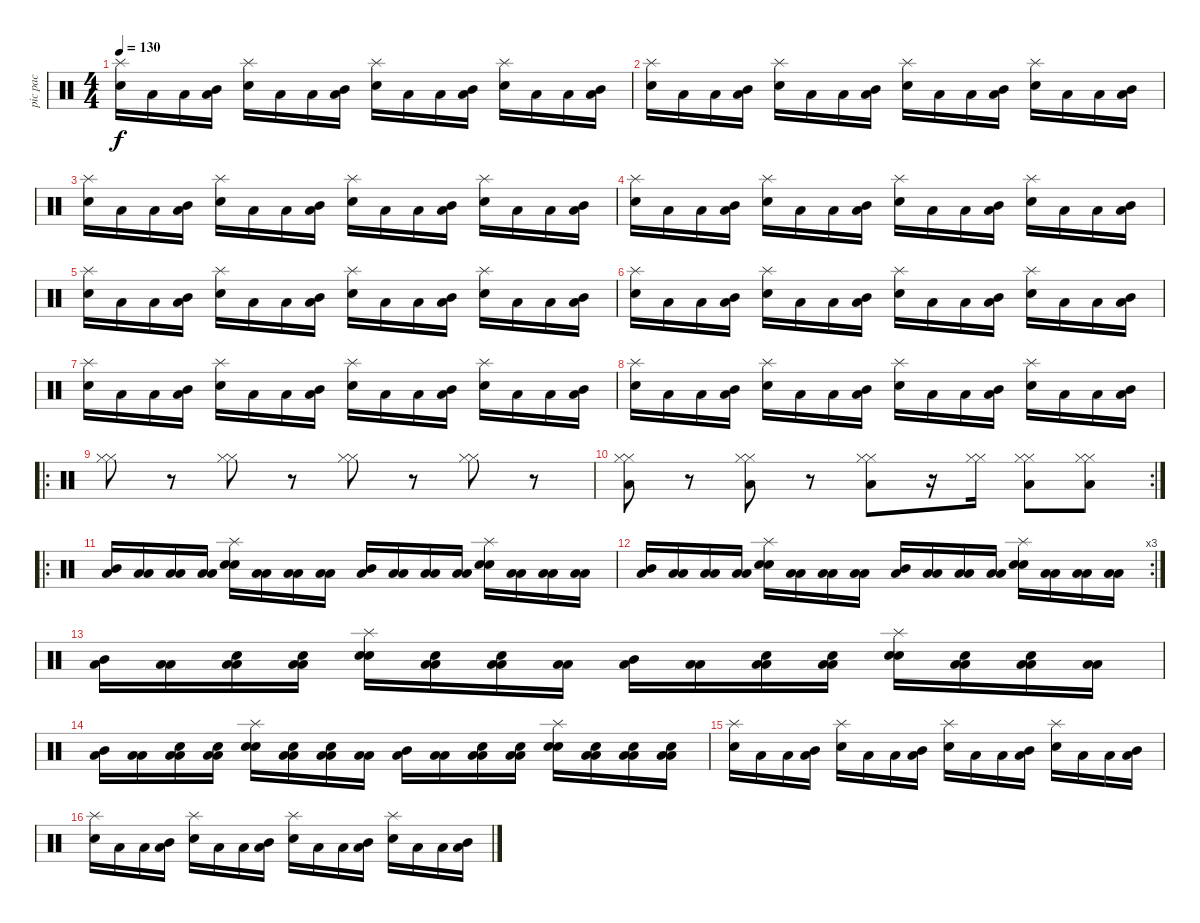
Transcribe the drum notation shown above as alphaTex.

\track ("pic pac" "pic pac") {instrument percussion}
\staff {score}
\articulation defaults
\ts (4 4)
\tempo 130
\clef neutral
\ks c
("Snare (hit) 2" "Splash (hit)").16{dy f} "Low Floor Tom (hit)".16 "Low Floor Tom (hit)".16 ("Low Floor Tom (hit)" "Mid Tom (hit)").16 ("Snare (hit) 2" "Splash (hit)").16 "Low Floor Tom (hit)".16 "Low Floor Tom (hit)".16 ("Low Floor Tom (hit)" "Mid Tom (hit)").16 ("Snare (hit) 2" "Splash (hit)").16 "Low Floor Tom (hit)".16 "Low Floor Tom (hit)".16 ("Low Floor Tom (hit)" "Mid Tom (hit)").16 ("Snare (hit) 2" "Splash (hit)").16 "Low Floor Tom (hit)".16 "Low Floor Tom (hit)".16 ("Low Floor Tom (hit)" "Mid Tom (hit)").16 |
("Snare (hit) 2" "Splash (hit)").16 "Low Floor Tom (hit)".16 "Low Floor Tom (hit)".16 ("Low Floor Tom (hit)" "Mid Tom (hit)").16 ("Snare (hit) 2" "Splash (hit)").16 "Low Floor Tom (hit)".16 "Low Floor Tom (hit)".16 ("Low Floor Tom (hit)" "Mid Tom (hit)").16 ("Snare (hit) 2" "Splash (hit)").16 "Low Floor Tom (hit)".16 "Low Floor Tom (hit)".16 ("Low Floor Tom (hit)" "Mid Tom (hit)").16 ("Snare (hit) 2" "Splash (hit)").16 "Low Floor Tom (hit)".16 "Low Floor Tom (hit)".16 ("Low Floor Tom (hit)" "Mid Tom (hit)").16 |
("Snare (hit) 2" "Splash (hit)").16 "Low Floor Tom (hit)".16 "Low Floor Tom (hit)".16 ("Low Floor Tom (hit)" "Mid Tom (hit)").16 ("Snare (hit) 2" "Splash (hit)").16 "Low Floor Tom (hit)".16 "Low Floor Tom (hit)".16 ("Low Floor Tom (hit)" "Mid Tom (hit)").16 ("Snare (hit) 2" "Splash (hit)").16 "Low Floor Tom (hit)".16 "Low Floor Tom (hit)".16 ("Low Floor Tom (hit)" "Mid Tom (hit)").16 ("Snare (hit) 2" "Splash (hit)").16 "Low Floor Tom (hit)".16 "Low Floor Tom (hit)".16 ("Low Floor Tom (hit)" "Mid Tom (hit)").16 |
("Snare (hit) 2" "Splash (hit)").16 "Low Floor Tom (hit)".16 "Low Floor Tom (hit)".16 ("Low Floor Tom (hit)" "Mid Tom (hit)").16 ("Snare (hit) 2" "Splash (hit)").16 "Low Floor Tom (hit)".16 "Low Floor Tom (hit)".16 ("Low Floor Tom (hit)" "Mid Tom (hit)").16 ("Snare (hit) 2" "Splash (hit)").16 "Low Floor Tom (hit)".16 "Low Floor Tom (hit)".16 ("Low Floor Tom (hit)" "Mid Tom (hit)").16 ("Snare (hit) 2" "Splash (hit)").16 "Low Floor Tom (hit)".16 "Low Floor Tom (hit)".16 ("Low Floor Tom (hit)" "Mid Tom (hit)").16 |
("Snare (hit) 2" "Splash (hit)").16 "Low Floor Tom (hit)".16 "Low Floor Tom (hit)".16 ("Low Floor Tom (hit)" "Mid Tom (hit)").16 ("Snare (hit) 2" "Splash (hit)").16 "Low Floor Tom (hit)".16 "Low Floor Tom (hit)".16 ("Low Floor Tom (hit)" "Mid Tom (hit)").16 ("Snare (hit) 2" "Splash (hit)").16 "Low Floor Tom (hit)".16 "Low Floor Tom (hit)".16 ("Low Floor Tom (hit)" "Mid Tom (hit)").16 ("Snare (hit) 2" "Splash (hit)").16 "Low Floor Tom (hit)".16 "Low Floor Tom (hit)".16 ("Low Floor Tom (hit)" "Mid Tom (hit)").16 |
("Snare (hit) 2" "Splash (hit)").16 "Low Floor Tom (hit)".16 "Low Floor Tom (hit)".16 ("Low Floor Tom (hit)" "Mid Tom (hit)").16 ("Snare (hit) 2" "Splash (hit)").16 "Low Floor Tom (hit)".16 "Low Floor Tom (hit)".16 ("Low Floor Tom (hit)" "Mid Tom (hit)").16 ("Snare (hit) 2" "Splash (hit)").16 "Low Floor Tom (hit)".16 "Low Floor Tom (hit)".16 ("Low Floor Tom (hit)" "Mid Tom (hit)").16 ("Snare (hit) 2" "Splash (hit)").16 "Low Floor Tom (hit)".16 "Low Floor Tom (hit)".16 ("Low Floor Tom (hit)" "Mid Tom (hit)").16 |
("Snare (hit) 2" "Splash (hit)").16 "Low Floor Tom (hit)".16 "Low Floor Tom (hit)".16 ("Low Floor Tom (hit)" "Mid Tom (hit)").16 ("Snare (hit) 2" "Splash (hit)").16 "Low Floor Tom (hit)".16 "Low Floor Tom (hit)".16 ("Low Floor Tom (hit)" "Mid Tom (hit)").16 ("Snare (hit) 2" "Splash (hit)").16 "Low Floor Tom (hit)".16 "Low Floor Tom (hit)".16 ("Low Floor Tom (hit)" "Mid Tom (hit)").16 ("Snare (hit) 2" "Splash (hit)").16 "Low Floor Tom (hit)".16 "Low Floor Tom (hit)".16 ("Low Floor Tom (hit)" "Mid Tom (hit)").16 |
("Snare (hit) 2" "Splash (hit)").16 "Low Floor Tom (hit)".16 "Low Floor Tom (hit)".16 ("Low Floor Tom (hit)" "Mid Tom (hit)").16 ("Snare (hit) 2" "Splash (hit)").16 "Low Floor Tom (hit)".16 "Low Floor Tom (hit)".16 ("Low Floor Tom (hit)" "Mid Tom (hit)").16 ("Snare (hit) 2" "Splash (hit)").16 "Low Floor Tom (hit)".16 "Low Floor Tom (hit)".16 ("Low Floor Tom (hit)" "Mid Tom (hit)").16 ("Snare (hit) 2" "Splash (hit)").16 "Low Floor Tom (hit)".16 "Low Floor Tom (hit)".16 ("Low Floor Tom (hit)" "Mid Tom (hit)").16 |
\ro
("Hi-Hat (closed)" "Hi-Hat (closed)").8 r.8 ("Hi-Hat (closed)" "Hi-Hat (closed)").8 r.8 ("Hi-Hat (closed)" "Hi-Hat (closed)").8 r.8 ("Hi-Hat (closed)" "Hi-Hat (closed)").8 r.8 |
\rc 2
("Hi-Hat (closed)" "Hi-Hat (closed)" "Low Floor Tom (hit)").8 r.8 ("Hi-Hat (closed)" "Hi-Hat (closed)" "Low Floor Tom (hit)").8 r.8 ("Hi-Hat (closed)" "Hi-Hat (closed)" "Low Floor Tom (hit)").8 r.16 ("Hi-Hat (closed)" "Hi-Hat (closed)").16 ("Hi-Hat (closed)" "Hi-Hat (closed)" "Low Floor Tom (hit)").8 ("Hi-Hat (closed)" "Hi-Hat (closed)" "Low Floor Tom (hit)").8 |
\ro
("Mid Tom (hit)" "Low Floor Tom (hit)").16 ("Low Floor Tom (hit)" "Low Floor Tom (hit)").16 ("Low Floor Tom (hit)" "Low Floor Tom (hit)").16 ("Low Floor Tom (hit)" "Low Floor Tom (hit)").16 ("Snare (hit) 2" "Snare (hit) 2" "Splash (hit)").16 ("Low Floor Tom (hit)" "Low Floor Tom (hit)").16 ("Low Floor Tom (hit)" "Low Floor Tom (hit)").16 ("Low Floor Tom (hit)" "Low Floor Tom (hit)").16 ("Mid Tom (hit)" "Low Floor Tom (hit)").16 ("Low Floor Tom (hit)" "Low Floor Tom (hit)").16 ("Low Floor Tom (hit)" "Low Floor Tom (hit)").16 ("Low Floor Tom (hit)" "Low Floor Tom (hit)").16 ("Snare (hit) 2" "Snare (hit) 2" "Splash (hit)").16 ("Low Floor Tom (hit)" "Low Floor Tom (hit)").16 ("Low Floor Tom (hit)" "Low Floor Tom (hit)").16 ("Low Floor Tom (hit)" "Low Floor Tom (hit)").16 |
\rc 3
("Mid Tom (hit)" "Low Floor Tom (hit)").16 ("Low Floor Tom (hit)" "Low Floor Tom (hit)").16 ("Low Floor Tom (hit)" "Low Floor Tom (hit)").16 ("Low Floor Tom (hit)" "Low Floor Tom (hit)").16 ("Snare (hit) 2" "Snare (hit) 2" "Splash (hit)").16 ("Low Floor Tom (hit)" "Low Floor Tom (hit)").16 ("Low Floor Tom (hit)" "Low Floor Tom (hit)").16 ("Low Floor Tom (hit)" "Low Floor Tom (hit)").16 ("Mid Tom (hit)" "Low Floor Tom (hit)").16 ("Low Floor Tom (hit)" "Low Floor Tom (hit)").16 ("Low Floor Tom (hit)" "Low Floor Tom (hit)").16 ("Low Floor Tom (hit)" "Low Floor Tom (hit)").16 ("Snare (hit) 2" "Snare (hit) 2" "Splash (hit)").16 ("Low Floor Tom (hit)" "Low Floor Tom (hit)").16 ("Low Floor Tom (hit)" "Low Floor Tom (hit)").16 ("Low Floor Tom (hit)" "Low Floor Tom (hit)").16 |
("Mid Tom (hit)" "Low Floor Tom (hit)").16 ("Low Floor Tom (hit)" "Low Floor Tom (hit)").16 ("Low Floor Tom (hit)" "Low Floor Tom (hit)" "Snare (hit) 2").16 ("Low Floor Tom (hit)" "Low Floor Tom (hit)" "Snare (hit) 2").16 ("Snare (hit) 2" "Snare (hit) 2" "Splash (hit)").16 ("Low Floor Tom (hit)" "Low Floor Tom (hit)" "Snare (hit) 2").16 ("Low Floor Tom (hit)" "Low Floor Tom (hit)" "Snare (hit) 2").16 ("Low Floor Tom (hit)" "Low Floor Tom (hit)").16 ("Mid Tom (hit)" "Low Floor Tom (hit)").16 ("Low Floor Tom (hit)" "Low Floor Tom (hit)").16 ("Low Floor Tom (hit)" "Low Floor Tom (hit)" "Snare (hit) 2").16 ("Low Floor Tom (hit)" "Low Floor Tom (hit)" "Snare (hit) 2").16 ("Snare (hit) 2" "Snare (hit) 2" "Splash (hit)").16 ("Low Floor Tom (hit)" "Low Floor Tom (hit)" "Snare (hit) 2").16 ("Low Floor Tom (hit)" "Low Floor Tom (hit)" "Snare (hit) 2").16 ("Low Floor Tom (hit)" "Low Floor Tom (hit)").16 |
("Mid Tom (hit)" "Low Floor Tom (hit)").16 ("Low Floor Tom (hit)" "Low Floor Tom (hit)").16 ("Low Floor Tom (hit)" "Low Floor Tom (hit)" "Snare (hit) 2").16 ("Low Floor Tom (hit)" "Low Floor Tom (hit)" "Snare (hit) 2").16 ("Snare (hit) 2" "Snare (hit) 2" "Splash (hit)").16 ("Low Floor Tom (hit)" "Low Floor Tom (hit)" "Snare (hit) 2").16 ("Low Floor Tom (hit)" "Low Floor Tom (hit)" "Snare (hit) 2").16 ("Low Floor Tom (hit)" "Low Floor Tom (hit)").16 ("Mid Tom (hit)" "Low Floor Tom (hit)").16 ("Low Floor Tom (hit)" "Low Floor Tom (hit)").16 ("Low Floor Tom (hit)" "Low Floor Tom (hit)" "Snare (hit) 2").16 ("Low Floor Tom (hit)" "Low Floor Tom (hit)" "Snare (hit) 2").16 ("Snare (hit) 2" "Snare (hit) 2" "Splash (hit)").16 ("Low Floor Tom (hit)" "Low Floor Tom (hit)" "Snare (hit) 2").16 ("Low Floor Tom (hit)" "Low Floor Tom (hit)" "Snare (hit) 2").16 ("Low Floor Tom (hit)" "Low Floor Tom (hit)" "Electric Snare (hit)").16 |
("Snare (hit) 2" "Splash (hit)").16 "Low Floor Tom (hit)".16 "Low Floor Tom (hit)".16 ("Low Floor Tom (hit)" "Mid Tom (hit)").16 ("Snare (hit) 2" "Splash (hit)").16 "Low Floor Tom (hit)".16 "Low Floor Tom (hit)".16 ("Low Floor Tom (hit)" "Mid Tom (hit)").16 ("Snare (hit) 2" "Splash (hit)").16 "Low Floor Tom (hit)".16 "Low Floor Tom (hit)".16 ("Low Floor Tom (hit)" "Mid Tom (hit)").16 ("Snare (hit) 2" "Splash (hit)").16 "Low Floor Tom (hit)".16 "Low Floor Tom (hit)".16 ("Low Floor Tom (hit)" "Mid Tom (hit)").16 |
("Snare (hit) 2" "Splash (hit)").16 "Low Floor Tom (hit)".16 "Low Floor Tom (hit)".16 ("Low Floor Tom (hit)" "Mid Tom (hit)").16 ("Snare (hit) 2" "Splash (hit)").16 "Low Floor Tom (hit)".16 "Low Floor Tom (hit)".16 ("Low Floor Tom (hit)" "Mid Tom (hit)").16 ("Snare (hit) 2" "Splash (hit)").16 "Low Floor Tom (hit)".16 "Low Floor Tom (hit)".16 ("Low Floor Tom (hit)" "Mid Tom (hit)").16 ("Snare (hit) 2" "Splash (hit)").16 "Low Floor Tom (hit)".16 "Low Floor Tom (hit)".16 ("Low Floor Tom (hit)" "Mid Tom (hit)").16
